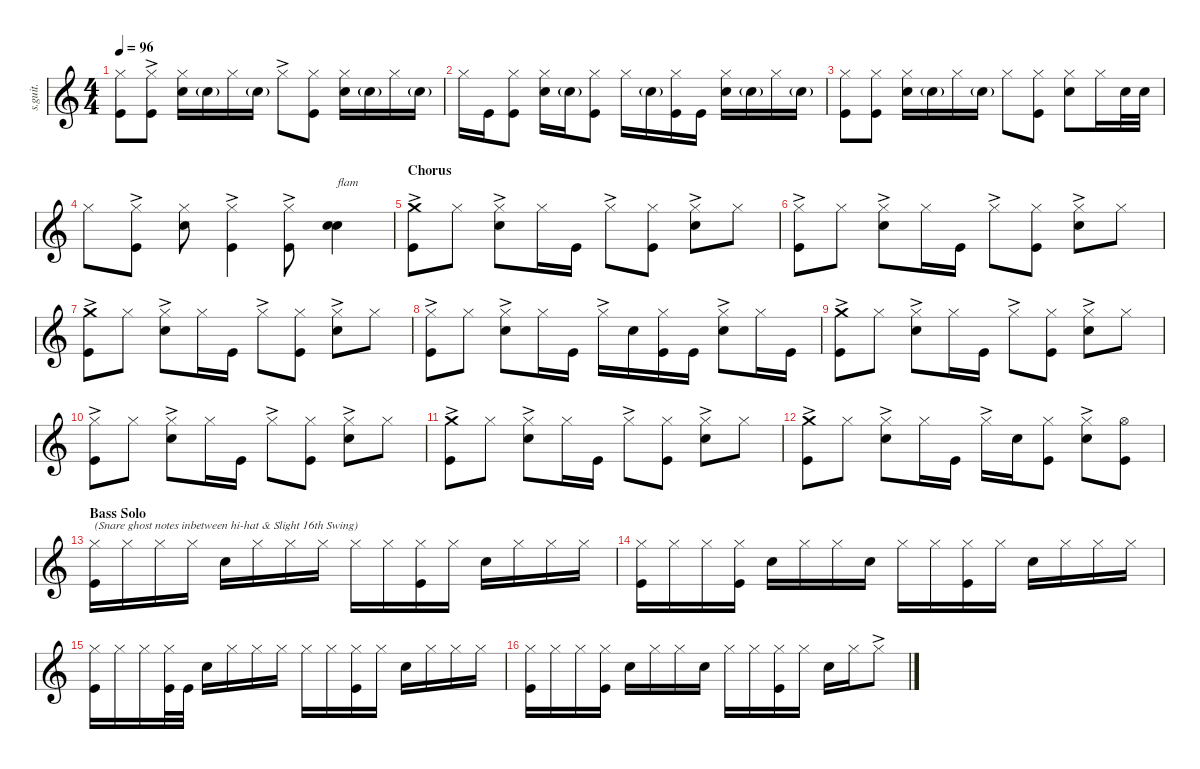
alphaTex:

\defaultSystemsLayout 4
\hideDynamics
\bracketExtendMode nobrackets
\track ("Chad Smith" "s.guit.") {instrument percussion}
\staff {score}
\articulation defaults
\ts (4 4)
\tempo 96
\clef g2
\ks c
("Hi-Hat (closed)" "Kick (hit)").8{dy f} ("Hi-Hat (closed)"{ac} "Kick (hit)").8 ("Hi-Hat (closed)" "Snare (hit) 2").16 "Snare (hit) 2"{g}.16{dy ppp} "Hi-Hat (closed)".16{dy f} "Snare (hit) 2"{g}.16{dy ppp} "Hi-Hat (closed)"{ac}.8{dy f} ("Hi-Hat (closed)" "Kick (hit)").8 ("Hi-Hat (closed)" "Snare (hit) 2").16 "Snare (hit) 2"{g}.16{dy ppp} "Hi-Hat (closed)".16{dy f} "Snare (hit) 2"{g}.16{dy ppp} |
"Hi-Hat (closed)".16{dy f} "Kick (hit)".16 ("Hi-Hat (closed)" "Kick (hit)").8 ("Hi-Hat (closed)" "Snare (hit) 2").16 "Snare (hit) 2"{g}.16{dy ppp} ("Hi-Hat (closed)" "Kick (hit)").8{dy f} "Hi-Hat (closed)".16 "Snare (hit) 2"{g}.16{dy ppp} ("Hi-Hat (closed)" "Kick (hit)").16{dy f} "Kick (hit)".16 ("Hi-Hat (closed)" "Snare (hit) 2").16 "Snare (hit) 2"{g}.16{dy ppp} "Hi-Hat (closed)".16{dy f} "Snare (hit) 2"{g}.16{dy ppp} |
("Hi-Hat (closed)" "Kick (hit)").8{dy f} ("Hi-Hat (closed)" "Kick (hit)").8 ("Hi-Hat (closed)" "Snare (hit) 2").16 "Snare (hit) 2"{g}.16{dy ppp} "Hi-Hat (closed)".16{dy f} "Snare (hit) 2"{g}.16{dy ppp} "Hi-Hat (closed)".8{dy f} ("Hi-Hat (closed)" "Kick (hit)").8 ("Hi-Hat (closed)" "Snare (hit) 2").8 "Hi-Hat (closed)".16 "Snare (hit) 2".32 "Snare (hit) 2".32 |
"Hi-Hat (closed)".8 ("Hi-Hat (closed)"{ac} "Kick (hit)").8 ("Hi-Hat (closed)" "Snare (hit) 2").8 ("Hi-Hat (closed)"{ac} "Kick (hit)").4 ("Hi-Hat (closed)"{ac} "Kick (hit)").8 ("Snare (hit) 2" "Snare (hit) 2").4{bd 30 txt "flam"} |
\section ("" "Chorus")
("Crash medium (hit)"{ac} "Kick (hit)").8 "Hi-Hat (closed)".8 ("Hi-Hat (closed)"{ac} "Snare (hit) 2").8 "Hi-Hat (closed)".16 "Kick (hit)".16 "Hi-Hat (closed)"{ac}.8 ("Hi-Hat (closed)" "Kick (hit)").8 ("Hi-Hat (closed)"{ac} "Snare (hit) 2").8 "Hi-Hat (closed)".8 |
("Hi-Hat (closed)"{ac} "Kick (hit)").8 "Hi-Hat (closed)".8 ("Hi-Hat (closed)"{ac} "Snare (hit) 2").8 "Hi-Hat (closed)".16 "Kick (hit)".16 "Hi-Hat (closed)"{ac}.8 ("Hi-Hat (closed)" "Kick (hit)").8 ("Hi-Hat (closed)"{ac} "Snare (hit) 2").8 "Hi-Hat (closed)".8 |
("Crash medium (hit)"{ac} "Kick (hit)").8 "Hi-Hat (closed)".8 ("Hi-Hat (closed)"{ac} "Snare (hit) 2").8 "Hi-Hat (closed)".16 "Kick (hit)".16 "Hi-Hat (closed)"{ac}.8 ("Hi-Hat (closed)" "Kick (hit)").8 ("Hi-Hat (closed)"{ac} "Snare (hit) 2").8 "Hi-Hat (closed)".8 |
("Hi-Hat (closed)"{ac} "Kick (hit)").8 "Hi-Hat (closed)".8 ("Hi-Hat (closed)"{ac} "Snare (hit) 2").8 "Hi-Hat (closed)".16 "Kick (hit)".16 "Hi-Hat (closed)"{ac}.16 "Snare (hit) 2".16 ("Hi-Hat (closed)" "Kick (hit)").16 "Kick (hit)".16 ("Hi-Hat (closed)"{ac} "Snare (hit) 2").8 "Hi-Hat (closed)".16 "Kick (hit)".16 |
("Crash medium (hit)"{ac} "Kick (hit)").8 "Hi-Hat (closed)".8 ("Hi-Hat (closed)"{ac} "Snare (hit) 2").8 "Hi-Hat (closed)".16 "Kick (hit)".16 "Hi-Hat (closed)"{ac}.8 ("Hi-Hat (closed)" "Kick (hit)").8 ("Hi-Hat (closed)"{ac} "Snare (hit) 2").8 "Hi-Hat (closed)".8 |
("Hi-Hat (closed)"{ac} "Kick (hit)").8 "Hi-Hat (closed)".8 ("Hi-Hat (closed)"{ac} "Snare (hit) 2").8 "Hi-Hat (closed)".16 "Kick (hit)".16 "Hi-Hat (closed)"{ac}.8 ("Hi-Hat (closed)" "Kick (hit)").8 ("Hi-Hat (closed)"{ac} "Snare (hit) 2").8 "Hi-Hat (closed)".8 |
("Crash medium (hit)"{ac} "Kick (hit)").8 "Hi-Hat (closed)".8 ("Hi-Hat (closed)"{ac} "Snare (hit) 2").8 "Hi-Hat (closed)".16 "Kick (hit)".16 "Hi-Hat (closed)"{ac}.8 ("Hi-Hat (closed)" "Kick (hit)").8 ("Hi-Hat (closed)"{ac} "Snare (hit) 2").8 "Hi-Hat (closed)".8 |
("Crash medium (hit)"{ac} "Kick (hit)").8 "Hi-Hat (closed)".8 ("Hi-Hat (closed)"{ac} "Snare (hit) 2").8 "Hi-Hat (closed)".16 "Kick (hit)".16 "Hi-Hat (closed)"{ac}.16 "Snare (hit) 2".16 ("Hi-Hat (closed)" "Kick (hit)").8 ("Hi-Hat (closed)"{ac} "Snare (hit) 2").8 ("Hi-Hat (open)" "Kick (hit)").8 |
\section ("" "Bass Solo")
("Hi-Hat (closed)" "Kick (hit)").16{txt "(Snare ghost notes inbetween hi-hat & Slight 16th Swing)"} "Hi-Hat (closed)".16 "Hi-Hat (closed)".16 "Hi-Hat (closed)".16 "Snare (hit) 2".16 "Hi-Hat (closed)".16 "Hi-Hat (closed)".16 "Hi-Hat (closed)".16 "Hi-Hat (closed)".16 "Hi-Hat (closed)".16 ("Hi-Hat (closed)" "Kick (hit)").16 "Hi-Hat (closed)".16 "Snare (hit) 2".16 "Hi-Hat (closed)".16 "Hi-Hat (closed)".16 "Hi-Hat (closed)".16 |
("Hi-Hat (closed)" "Kick (hit)").16 "Hi-Hat (closed)".16 "Hi-Hat (closed)".16 ("Hi-Hat (closed)" "Kick (hit)").16 "Snare (hit) 2".16 "Hi-Hat (closed)".16 "Hi-Hat (closed)".16 "Snare (hit) 2".16 "Hi-Hat (closed)".16 "Hi-Hat (closed)".16 ("Hi-Hat (closed)" "Kick (hit)").16 "Hi-Hat (closed)".16 "Snare (hit) 2".16 "Hi-Hat (closed)".16 "Hi-Hat (closed)".16 "Hi-Hat (closed)".16 |
("Hi-Hat (closed)" "Kick (hit)").16 "Hi-Hat (closed)".16 "Hi-Hat (closed)".16 ("Hi-Hat (closed)" "Kick (hit)").32 "Kick (hit)".32 "Snare (hit) 2".16 "Hi-Hat (closed)".16 "Hi-Hat (closed)".16 "Hi-Hat (closed)".16 "Hi-Hat (closed)".16 "Hi-Hat (closed)".16 ("Hi-Hat (closed)" "Kick (hit)").16 "Hi-Hat (closed)".16 "Snare (hit) 2".16 "Hi-Hat (closed)".16 "Hi-Hat (closed)".16 "Hi-Hat (closed)".16 |
("Hi-Hat (closed)" "Kick (hit)").16 "Hi-Hat (closed)".16 "Hi-Hat (closed)".16 ("Hi-Hat (closed)" "Kick (hit)").16 "Snare (hit) 2".16 "Hi-Hat (closed)".16 "Hi-Hat (closed)".16 "Snare (hit) 2".16 "Hi-Hat (closed)".16 "Hi-Hat (closed)".16 ("Hi-Hat (closed)" "Kick (hit)").16 "Hi-Hat (closed)".16 "Snare (hit) 2".16 "Hi-Hat (closed)".16 "Hi-Hat (closed)"{ac}.8
